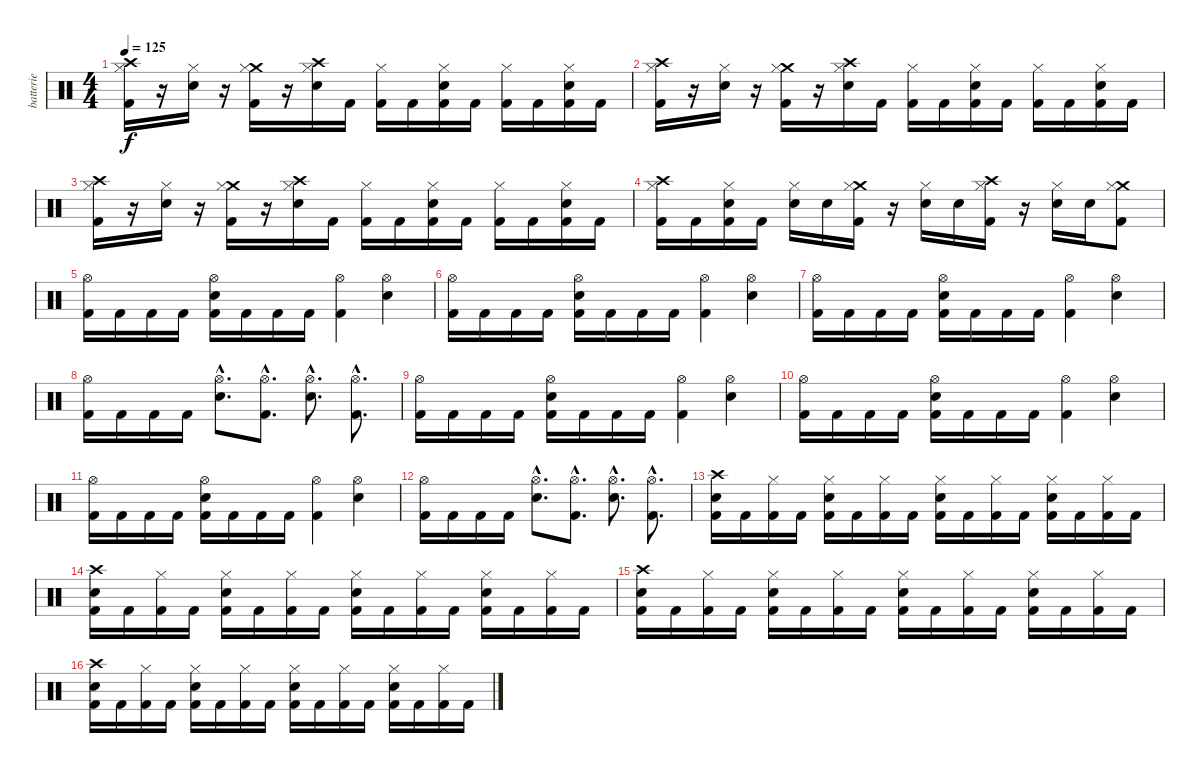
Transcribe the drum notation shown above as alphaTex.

\track ("batterie" "batterie") {instrument percussion}
\staff {score}
\articulation defaults
\ts (4 4)
\tempo 125
\clef neutral
\ks c
("Crash high (hit)" "Kick (hit) 2" "Hi-Hat (closed)").16{dy f} r.16 ("Electric Snare (hit)" "Hi-Hat (closed)").16 r.16 ("Crash medium (hit)" "Kick (hit) 2" "Hi-Hat (closed)").16 r.16 ("Crash high (hit)" "Electric Snare (hit)" "Hi-Hat (closed)").16 "Kick (hit) 2".16 ("Kick (hit) 2" "Hi-Hat (closed)").16 "Kick (hit) 2".16 ("Electric Snare (hit)" "Kick (hit) 2" "Hi-Hat (closed)").16 "Kick (hit) 2".16 ("Kick (hit) 2" "Hi-Hat (closed)").16 "Kick (hit) 2".16 ("Electric Snare (hit)" "Kick (hit) 2" "Hi-Hat (closed)").16 "Kick (hit) 2".16 |
("Crash high (hit)" "Kick (hit) 2" "Hi-Hat (closed)").16 r.16 ("Electric Snare (hit)" "Hi-Hat (closed)").16 r.16 ("Crash medium (hit)" "Kick (hit) 2" "Hi-Hat (closed)").16 r.16 ("Crash high (hit)" "Electric Snare (hit)" "Hi-Hat (closed)").16 "Kick (hit) 2".16 ("Kick (hit) 2" "Hi-Hat (closed)").16 "Kick (hit) 2".16 ("Electric Snare (hit)" "Kick (hit) 2" "Hi-Hat (closed)").16 "Kick (hit) 2".16 ("Kick (hit) 2" "Hi-Hat (closed)").16 "Kick (hit) 2".16 ("Electric Snare (hit)" "Kick (hit) 2" "Hi-Hat (closed)").16 "Kick (hit) 2".16 |
("Crash high (hit)" "Kick (hit) 2" "Hi-Hat (closed)").16 r.16 ("Electric Snare (hit)" "Hi-Hat (closed)").16 r.16 ("Crash medium (hit)" "Kick (hit) 2" "Hi-Hat (closed)").16 r.16 ("Crash high (hit)" "Electric Snare (hit)" "Hi-Hat (closed)").16 "Kick (hit) 2".16 ("Kick (hit) 2" "Hi-Hat (closed)").16 "Kick (hit) 2".16 ("Electric Snare (hit)" "Kick (hit) 2" "Hi-Hat (closed)").16 "Kick (hit) 2".16 ("Kick (hit) 2" "Hi-Hat (closed)").16 "Kick (hit) 2".16 ("Electric Snare (hit)" "Kick (hit) 2" "Hi-Hat (closed)").16 "Kick (hit) 2".16 |
("Crash high (hit)" "Kick (hit) 2" "Hi-Hat (closed)").16 "Kick (hit) 2".16 ("Electric Snare (hit)" "Kick (hit) 2" "Hi-Hat (closed)").16 "Kick (hit) 2".16 ("Electric Snare (hit)" "Hi-Hat (closed)").16 "Electric Snare (hit)".16 ("Crash medium (hit)" "Kick (hit) 2" "Hi-Hat (closed)").16 r.16 ("Electric Snare (hit)" "Hi-Hat (closed)").16 "Electric Snare (hit)".16 ("Crash high (hit)" "Kick (hit) 2" "Hi-Hat (closed)").16 r.16 ("Electric Snare (hit)" "Hi-Hat (closed)").16 "Electric Snare (hit)".16 ("Crash medium (hit)" "Kick (hit) 2" "Hi-Hat (closed)").8 |
("Kick (hit) 2" "Hi-Hat (open)").16 "Kick (hit) 2".16 "Kick (hit) 2".16 "Kick (hit) 2".16 ("Electric Snare (hit)" "Kick (hit) 2" "Hi-Hat (open)").16 "Kick (hit) 2".16 "Kick (hit) 2".16 "Kick (hit) 2".16 ("Kick (hit) 2" "Hi-Hat (open)").4 ("Electric Snare (hit)" "Hi-Hat (open)").4 |
("Kick (hit) 2" "Hi-Hat (open)").16 "Kick (hit) 2".16 "Kick (hit) 2".16 "Kick (hit) 2".16 ("Electric Snare (hit)" "Kick (hit) 2" "Hi-Hat (open)").16 "Kick (hit) 2".16 "Kick (hit) 2".16 "Kick (hit) 2".16 ("Kick (hit) 2" "Hi-Hat (open)").4 ("Electric Snare (hit)" "Hi-Hat (open)").4 |
("Kick (hit) 2" "Hi-Hat (open)").16 "Kick (hit) 2".16 "Kick (hit) 2".16 "Kick (hit) 2".16 ("Electric Snare (hit)" "Kick (hit) 2" "Hi-Hat (open)").16 "Kick (hit) 2".16 "Kick (hit) 2".16 "Kick (hit) 2".16 ("Kick (hit) 2" "Hi-Hat (open)").4 ("Electric Snare (hit)" "Hi-Hat (open)").4 |
("Kick (hit) 2" "Hi-Hat (open)").16 "Kick (hit) 2".16 "Kick (hit) 2".16 "Kick (hit) 2".16 ("Electric Snare (hit)"{hac} "Hi-Hat (open)"{hac}).8{d} ("Kick (hit) 2"{hac} "Hi-Hat (open)"{hac}).8{d} ("Electric Snare (hit)"{hac} "Hi-Hat (open)"{hac}).8{d} ("Kick (hit) 2"{hac} "Hi-Hat (open)"{hac}).8{d} |
("Kick (hit) 2" "Hi-Hat (open)").16 "Kick (hit) 2".16 "Kick (hit) 2".16 "Kick (hit) 2".16 ("Electric Snare (hit)" "Kick (hit) 2" "Hi-Hat (open)").16 "Kick (hit) 2".16 "Kick (hit) 2".16 "Kick (hit) 2".16 ("Kick (hit) 2" "Hi-Hat (open)").4 ("Electric Snare (hit)" "Hi-Hat (open)").4 |
("Kick (hit) 2" "Hi-Hat (open)").16 "Kick (hit) 2".16 "Kick (hit) 2".16 "Kick (hit) 2".16 ("Electric Snare (hit)" "Kick (hit) 2" "Hi-Hat (open)").16 "Kick (hit) 2".16 "Kick (hit) 2".16 "Kick (hit) 2".16 ("Kick (hit) 2" "Hi-Hat (open)").4 ("Electric Snare (hit)" "Hi-Hat (open)").4 |
("Kick (hit) 2" "Hi-Hat (open)").16 "Kick (hit) 2".16 "Kick (hit) 2".16 "Kick (hit) 2".16 ("Electric Snare (hit)" "Kick (hit) 2" "Hi-Hat (open)").16 "Kick (hit) 2".16 "Kick (hit) 2".16 "Kick (hit) 2".16 ("Kick (hit) 2" "Hi-Hat (open)").4 ("Electric Snare (hit)" "Hi-Hat (open)").4 |
("Kick (hit) 2" "Hi-Hat (open)").16 "Kick (hit) 2".16 "Kick (hit) 2".16 "Kick (hit) 2".16 ("Electric Snare (hit)"{hac} "Hi-Hat (open)"{hac}).8{d} ("Kick (hit) 2"{hac} "Hi-Hat (open)"{hac}).8{d} ("Electric Snare (hit)"{hac} "Hi-Hat (open)"{hac}).8{d} ("Kick (hit) 2"{hac} "Hi-Hat (open)"{hac}).8{d} |
("Crash high (hit)" "Electric Snare (hit)" "Kick (hit) 2").16 "Kick (hit) 2".16 ("Kick (hit) 2" "Hi-Hat (closed)").16 "Kick (hit) 2".16 ("Electric Snare (hit)" "Kick (hit) 2" "Hi-Hat (closed)").16 "Kick (hit) 2".16 ("Kick (hit) 2" "Hi-Hat (closed)").16 "Kick (hit) 2".16 ("Electric Snare (hit)" "Kick (hit) 2" "Hi-Hat (closed)").16 "Kick (hit) 2".16 ("Kick (hit) 2" "Hi-Hat (closed)").16 "Kick (hit) 2".16 ("Electric Snare (hit)" "Kick (hit) 2" "Hi-Hat (closed)").16 "Kick (hit) 2".16 ("Kick (hit) 2" "Hi-Hat (closed)").16 "Kick (hit) 2".16 |
("Crash high (hit)" "Electric Snare (hit)" "Kick (hit) 2").16 "Kick (hit) 2".16 ("Kick (hit) 2" "Hi-Hat (closed)").16 "Kick (hit) 2".16 ("Electric Snare (hit)" "Kick (hit) 2" "Hi-Hat (closed)").16 "Kick (hit) 2".16 ("Kick (hit) 2" "Hi-Hat (closed)").16 "Kick (hit) 2".16 ("Electric Snare (hit)" "Kick (hit) 2" "Hi-Hat (closed)").16 "Kick (hit) 2".16 ("Kick (hit) 2" "Hi-Hat (closed)").16 "Kick (hit) 2".16 ("Electric Snare (hit)" "Kick (hit) 2" "Hi-Hat (closed)").16 "Kick (hit) 2".16 ("Kick (hit) 2" "Hi-Hat (closed)").16 "Kick (hit) 2".16 |
("Crash high (hit)" "Electric Snare (hit)" "Kick (hit) 2").16 "Kick (hit) 2".16 ("Kick (hit) 2" "Hi-Hat (closed)").16 "Kick (hit) 2".16 ("Electric Snare (hit)" "Kick (hit) 2" "Hi-Hat (closed)").16 "Kick (hit) 2".16 ("Kick (hit) 2" "Hi-Hat (closed)").16 "Kick (hit) 2".16 ("Electric Snare (hit)" "Kick (hit) 2" "Hi-Hat (closed)").16 "Kick (hit) 2".16 ("Kick (hit) 2" "Hi-Hat (closed)").16 "Kick (hit) 2".16 ("Electric Snare (hit)" "Kick (hit) 2" "Hi-Hat (closed)").16 "Kick (hit) 2".16 ("Kick (hit) 2" "Hi-Hat (closed)").16 "Kick (hit) 2".16 |
("Crash high (hit)" "Electric Snare (hit)" "Kick (hit) 2").16 "Kick (hit) 2".16 ("Kick (hit) 2" "Hi-Hat (closed)").16 "Kick (hit) 2".16 ("Electric Snare (hit)" "Kick (hit) 2" "Hi-Hat (closed)").16 "Kick (hit) 2".16 ("Kick (hit) 2" "Hi-Hat (closed)").16 "Kick (hit) 2".16 ("Electric Snare (hit)" "Kick (hit) 2" "Hi-Hat (closed)").16 "Kick (hit) 2".16 ("Kick (hit) 2" "Hi-Hat (closed)").16 "Kick (hit) 2".16 ("Electric Snare (hit)" "Kick (hit) 2" "Hi-Hat (closed)").16 "Kick (hit) 2".16 ("Kick (hit) 2" "Hi-Hat (closed)").16 "Kick (hit) 2".16
